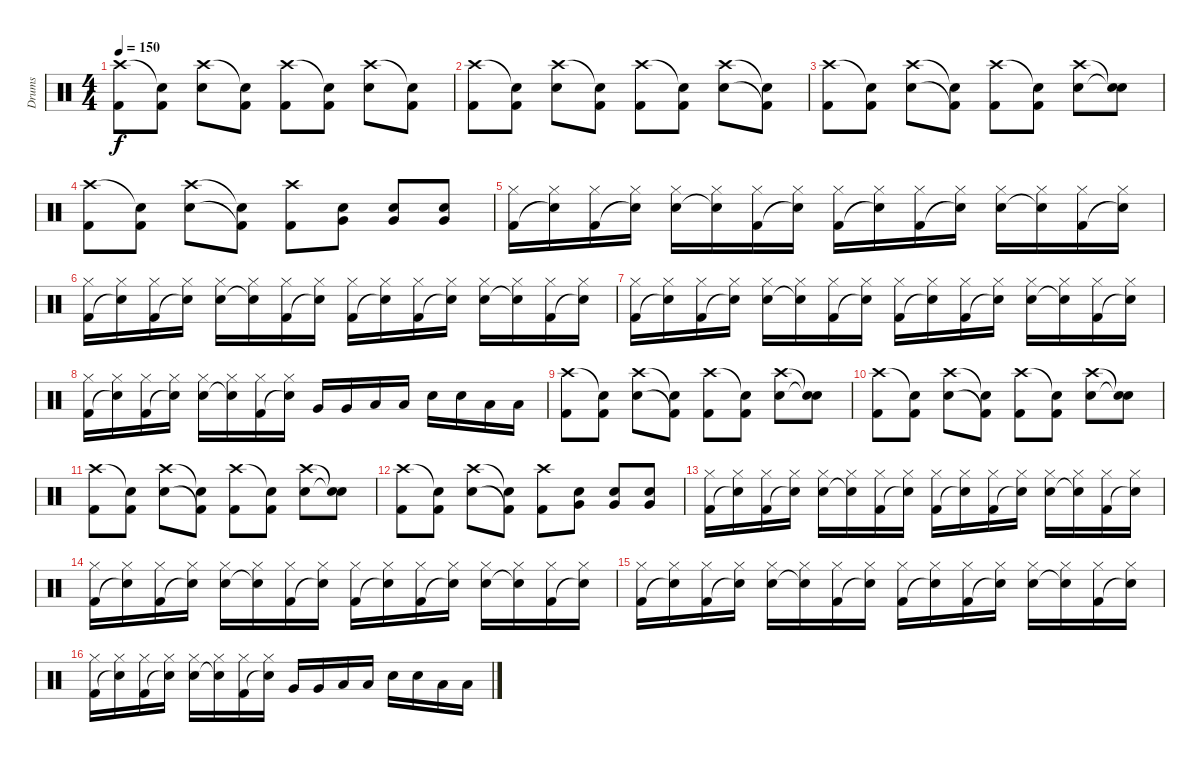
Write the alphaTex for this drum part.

\track ("Drums" "Drums") {instrument percussion bank 127}
\staff {score}
\articulation defaults
\ts (4 4)
\tempo 150
\clef neutral
\ks c
("Crash high (hit)" "Kick (hit) 2").8{dy f} ("Snare (hit)"{t} "Kick (hit) 2").8 ("Crash high (hit)" "Electric Snare (hit)").8 ("Snare (hit)"{t} "Kick (hit) 2").8 ("Crash high (hit)" "Kick (hit) 2").8 ("Snare (hit)"{t} "Kick (hit) 2").8 ("Crash high (hit)" "Electric Snare (hit)").8 ("Snare (hit)"{t} "Kick (hit) 2").8 |
("Crash high (hit)" "Kick (hit) 2").8 ("Snare (hit)"{t} "Kick (hit) 2").8 ("Crash high (hit)" "Electric Snare (hit)").8 ("Snare (hit)"{t} "Kick (hit) 2").8 ("Crash high (hit)" "Kick (hit) 2").8 ("Snare (hit)"{t} "Kick (hit) 2").8 ("Crash high (hit)" "Electric Snare (hit)").8 ("Snare (hit)"{t} "Kick (hit) 2"{t}).8 |
("Crash high (hit)" "Kick (hit) 2").8 ("Snare (hit)"{t} "Kick (hit) 2").8 ("Crash high (hit)" "Electric Snare (hit)").8 ("Snare (hit)"{t} "Kick (hit) 2"{t}).8 ("Crash high (hit)" "Kick (hit) 2").8 ("Snare (hit)"{t} "Kick (hit) 2").8 ("Crash high (hit)" "Electric Snare (hit)").8 ("Snare (hit)"{t} "Snare (hit)"{t}).8 |
("Crash high (hit)" "Kick (hit) 2").8 ("Snare (hit)"{t} "Kick (hit) 2").8 ("Crash high (hit)" "Electric Snare (hit)").8 ("Snare (hit)"{t} "Kick (hit) 2"{t}).8 ("Crash high (hit)" "Kick (hit) 2").8 ("Very Low Tom (hit)" "Electric Snare (hit)").8 ("Very Low Tom (hit)" "Electric Snare (hit)").8 ("Very Low Tom (hit)" "Electric Snare (hit)").8 |
("Hi-Hat (closed)" "Kick (hit) 2").16 ("Hi-Hat (closed)" "Snare (hit)"{t}).16 ("Hi-Hat (closed)" "Kick (hit) 2").16 ("Hi-Hat (closed)" "Snare (hit)"{t}).16 ("Hi-Hat (closed)" "Electric Snare (hit)").16 ("Hi-Hat (closed)" "Snare (hit)"{t}).16 ("Hi-Hat (closed)" "Kick (hit) 2").16 ("Hi-Hat (closed)" "Snare (hit)"{t}).16 ("Hi-Hat (closed)" "Kick (hit) 2").16 ("Hi-Hat (closed)" "Snare (hit)"{t}).16 ("Hi-Hat (closed)" "Kick (hit) 2").16 ("Hi-Hat (closed)" "Snare (hit)"{t}).16 ("Hi-Hat (closed)" "Electric Snare (hit)").16 ("Hi-Hat (closed)" "Snare (hit)"{t}).16 ("Hi-Hat (closed)" "Kick (hit) 2").16 ("Hi-Hat (closed)" "Snare (hit)"{t}).16 |
("Hi-Hat (closed)" "Kick (hit) 2").16 ("Hi-Hat (closed)" "Snare (hit)"{t}).16 ("Hi-Hat (closed)" "Kick (hit) 2").16 ("Hi-Hat (closed)" "Snare (hit)"{t}).16 ("Hi-Hat (closed)" "Electric Snare (hit)").16 ("Hi-Hat (closed)" "Snare (hit)"{t}).16 ("Hi-Hat (closed)" "Kick (hit) 2").16 ("Hi-Hat (closed)" "Snare (hit)"{t}).16 ("Hi-Hat (closed)" "Kick (hit) 2").16 ("Hi-Hat (closed)" "Snare (hit)"{t}).16 ("Hi-Hat (closed)" "Kick (hit) 2").16 ("Hi-Hat (closed)" "Snare (hit)"{t}).16 ("Hi-Hat (closed)" "Electric Snare (hit)").16 ("Hi-Hat (closed)" "Snare (hit)"{t}).16 ("Hi-Hat (closed)" "Kick (hit) 2").16 ("Hi-Hat (closed)" "Snare (hit)"{t}).16 |
("Hi-Hat (closed)" "Kick (hit) 2").16 ("Hi-Hat (closed)" "Snare (hit)"{t}).16 ("Hi-Hat (closed)" "Kick (hit) 2").16 ("Hi-Hat (closed)" "Snare (hit)"{t}).16 ("Hi-Hat (closed)" "Electric Snare (hit)").16 ("Hi-Hat (closed)" "Snare (hit)"{t}).16 ("Hi-Hat (closed)" "Kick (hit) 2").16 ("Hi-Hat (closed)" "Snare (hit)"{t}).16 ("Hi-Hat (closed)" "Kick (hit) 2").16 ("Hi-Hat (closed)" "Snare (hit)"{t}).16 ("Hi-Hat (closed)" "Kick (hit) 2").16 ("Hi-Hat (closed)" "Snare (hit)"{t}).16 ("Hi-Hat (closed)" "Electric Snare (hit)").16 ("Hi-Hat (closed)" "Snare (hit)"{t}).16 ("Hi-Hat (closed)" "Kick (hit) 2").16 ("Hi-Hat (closed)" "Snare (hit)"{t}).16 |
("Hi-Hat (closed)" "Kick (hit) 2").16 ("Hi-Hat (closed)" "Snare (hit)"{t}).16 ("Hi-Hat (closed)" "Kick (hit) 2").16 ("Hi-Hat (closed)" "Snare (hit)"{t}).16 ("Hi-Hat (closed)" "Electric Snare (hit)").16 ("Hi-Hat (closed)" "Snare (hit)"{t}).16 ("Hi-Hat (closed)" "Kick (hit) 2").16 ("Hi-Hat (closed)" "Snare (hit)"{t}).16 "Very Low Tom (hit)".16 "Very Low Tom (hit)".16 "Low Tom (hit)".16 "Low Tom (hit)".16 "Electric Snare (hit)".16 "Electric Snare (hit)".16 "Low Tom (hit)".16 "Low Tom (hit)".16 |
("Crash high (hit)" "Kick (hit) 2").8 ("Snare (hit)"{t} "Kick (hit) 2").8 ("Crash high (hit)" "Electric Snare (hit)").8 ("Snare (hit)"{t} "Kick (hit) 2"{t}).8 ("Crash high (hit)" "Kick (hit) 2").8 ("Snare (hit)"{t} "Kick (hit) 2").8 ("Crash high (hit)" "Electric Snare (hit)").8 ("Snare (hit)"{t} "Snare (hit)"{t}).8 |
("Crash high (hit)" "Kick (hit) 2").8 ("Snare (hit)"{t} "Kick (hit) 2").8 ("Crash high (hit)" "Electric Snare (hit)").8 ("Snare (hit)"{t} "Kick (hit) 2"{t}).8 ("Crash high (hit)" "Kick (hit) 2").8 ("Snare (hit)"{t} "Kick (hit) 2").8 ("Crash high (hit)" "Electric Snare (hit)").8 ("Snare (hit)"{t} "Snare (hit)"{t}).8 |
("Crash high (hit)" "Kick (hit) 2").8 ("Snare (hit)"{t} "Kick (hit) 2").8 ("Crash high (hit)" "Electric Snare (hit)").8 ("Snare (hit)"{t} "Kick (hit) 2"{t}).8 ("Crash high (hit)" "Kick (hit) 2").8 ("Snare (hit)"{t} "Kick (hit) 2").8 ("Crash high (hit)" "Electric Snare (hit)").8 ("Snare (hit)"{t} "Snare (hit)"{t}).8 |
("Crash high (hit)" "Kick (hit) 2").8 ("Snare (hit)"{t} "Kick (hit) 2").8 ("Crash high (hit)" "Electric Snare (hit)").8 ("Snare (hit)"{t} "Kick (hit) 2"{t}).8 ("Crash high (hit)" "Kick (hit) 2").8 ("Very Low Tom (hit)" "Electric Snare (hit)").8 ("Very Low Tom (hit)" "Electric Snare (hit)").8 ("Very Low Tom (hit)" "Electric Snare (hit)").8 |
("Hi-Hat (closed)" "Kick (hit) 2").16 ("Hi-Hat (closed)" "Snare (hit)"{t}).16 ("Hi-Hat (closed)" "Kick (hit) 2").16 ("Hi-Hat (closed)" "Snare (hit)"{t}).16 ("Hi-Hat (closed)" "Electric Snare (hit)").16 ("Hi-Hat (closed)" "Snare (hit)"{t}).16 ("Hi-Hat (closed)" "Kick (hit) 2").16 ("Hi-Hat (closed)" "Snare (hit)"{t}).16 ("Hi-Hat (closed)" "Kick (hit) 2").16 ("Hi-Hat (closed)" "Snare (hit)"{t}).16 ("Hi-Hat (closed)" "Kick (hit) 2").16 ("Hi-Hat (closed)" "Snare (hit)"{t}).16 ("Hi-Hat (closed)" "Electric Snare (hit)").16 ("Hi-Hat (closed)" "Snare (hit)"{t}).16 ("Hi-Hat (closed)" "Kick (hit) 2").16 ("Hi-Hat (closed)" "Snare (hit)"{t}).16 |
("Hi-Hat (closed)" "Kick (hit) 2").16 ("Hi-Hat (closed)" "Snare (hit)"{t}).16 ("Hi-Hat (closed)" "Kick (hit) 2").16 ("Hi-Hat (closed)" "Snare (hit)"{t}).16 ("Hi-Hat (closed)" "Electric Snare (hit)").16 ("Hi-Hat (closed)" "Snare (hit)"{t}).16 ("Hi-Hat (closed)" "Kick (hit) 2").16 ("Hi-Hat (closed)" "Snare (hit)"{t}).16 ("Hi-Hat (closed)" "Kick (hit) 2").16 ("Hi-Hat (closed)" "Snare (hit)"{t}).16 ("Hi-Hat (closed)" "Kick (hit) 2").16 ("Hi-Hat (closed)" "Snare (hit)"{t}).16 ("Hi-Hat (closed)" "Electric Snare (hit)").16 ("Hi-Hat (closed)" "Snare (hit)"{t}).16 ("Hi-Hat (closed)" "Kick (hit) 2").16 ("Hi-Hat (closed)" "Snare (hit)"{t}).16 |
("Hi-Hat (closed)" "Kick (hit) 2").16 ("Hi-Hat (closed)" "Snare (hit)"{t}).16 ("Hi-Hat (closed)" "Kick (hit) 2").16 ("Hi-Hat (closed)" "Snare (hit)"{t}).16 ("Hi-Hat (closed)" "Electric Snare (hit)").16 ("Hi-Hat (closed)" "Snare (hit)"{t}).16 ("Hi-Hat (closed)" "Kick (hit) 2").16 ("Hi-Hat (closed)" "Snare (hit)"{t}).16 ("Hi-Hat (closed)" "Kick (hit) 2").16 ("Hi-Hat (closed)" "Snare (hit)"{t}).16 ("Hi-Hat (closed)" "Kick (hit) 2").16 ("Hi-Hat (closed)" "Snare (hit)"{t}).16 ("Hi-Hat (closed)" "Electric Snare (hit)").16 ("Hi-Hat (closed)" "Snare (hit)"{t}).16 ("Hi-Hat (closed)" "Kick (hit) 2").16 ("Hi-Hat (closed)" "Snare (hit)"{t}).16 |
("Hi-Hat (closed)" "Kick (hit) 2").16 ("Hi-Hat (closed)" "Snare (hit)"{t}).16 ("Hi-Hat (closed)" "Kick (hit) 2").16 ("Hi-Hat (closed)" "Snare (hit)"{t}).16 ("Hi-Hat (closed)" "Electric Snare (hit)").16 ("Hi-Hat (closed)" "Snare (hit)"{t}).16 ("Hi-Hat (closed)" "Kick (hit) 2").16 ("Hi-Hat (closed)" "Snare (hit)"{t}).16 "Very Low Tom (hit)".16 "Very Low Tom (hit)".16 "Low Tom (hit)".16 "Low Tom (hit)".16 "Electric Snare (hit)".16 "Electric Snare (hit)".16 "Low Tom (hit)".16 "Low Tom (hit)".16
